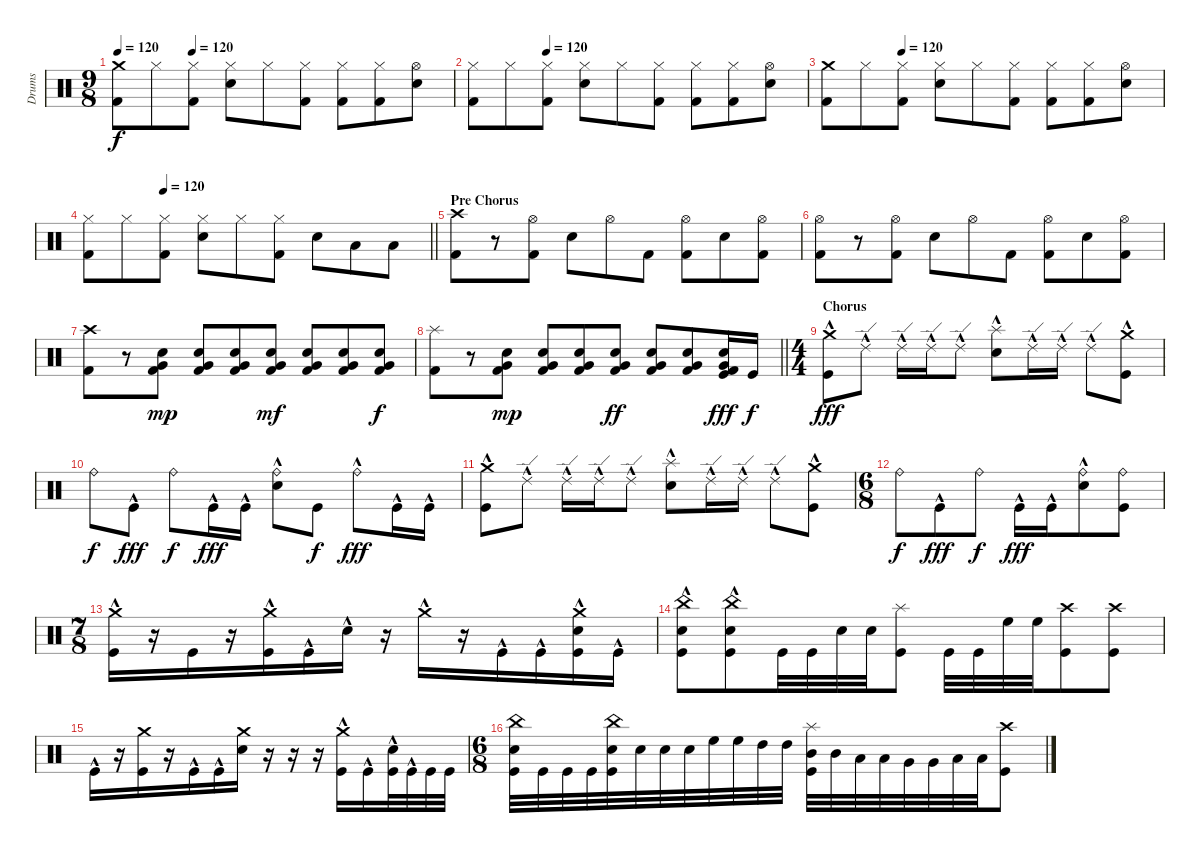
\track ("Drums" "Drums") {instrument percussion}
\staff {score}
\articulation defaults
\ts (9 8)
\tempo 120
\tempo (120 0.2222222222222222)
\clef neutral
\ks c
("Kick (hit) 2" "Crash medium (hit)").8{dy f} "Hi-Hat (closed)".8 ("Kick (hit) 2" "Hi-Hat (closed)").8 ("Electric Snare (hit)" "Hi-Hat (closed)").8 "Hi-Hat (closed)".8 ("Kick (hit) 2" "Hi-Hat (closed)").8 ("Kick (hit) 2" "Hi-Hat (closed)").8 ("Kick (hit) 2" "Hi-Hat (closed)").8 ("Electric Snare (hit)" "Hi-Hat (open)").8 |
\tempo (120 0.2222222222222222)
("Kick (hit) 2" "Hi-Hat (closed)").8 "Hi-Hat (closed)".8 ("Kick (hit) 2" "Hi-Hat (closed)").8 ("Electric Snare (hit)" "Hi-Hat (closed)").8 "Hi-Hat (closed)".8 ("Kick (hit) 2" "Hi-Hat (closed)").8 ("Kick (hit) 2" "Hi-Hat (closed)").8 ("Kick (hit) 2" "Hi-Hat (closed)").8 ("Electric Snare (hit)" "Hi-Hat (open)").8 |
\tempo (120 0.2222222222222222)
("Kick (hit) 2" "Crash medium (hit)").8 "Hi-Hat (closed)".8 ("Kick (hit) 2" "Hi-Hat (closed)").8 ("Electric Snare (hit)" "Hi-Hat (closed)").8 "Hi-Hat (closed)".8 ("Kick (hit) 2" "Hi-Hat (closed)").8 ("Kick (hit) 2" "Hi-Hat (closed)").8 ("Kick (hit) 2" "Hi-Hat (closed)").8 ("Electric Snare (hit)" "Hi-Hat (open)").8 |
\tempo (120 0.2222222222222222)
\barLineRight lightlight
("Kick (hit) 2" "Hi-Hat (closed)").8 "Hi-Hat (closed)".8 ("Kick (hit) 2" "Hi-Hat (closed)").8 ("Electric Snare (hit)" "Hi-Hat (closed)").8 "Hi-Hat (closed)".8 ("Kick (hit) 2" "Hi-Hat (closed)").8 "Electric Snare (hit)".8 "Low Tom (hit)".8 "Low Floor Tom (hit)".8 |
\section ("" "Pre Chorus")
("Kick (hit) 2" "Crash high (hit)").8 r.8 ("Kick (hit) 2" "Hi-Hat (open)").8 "Electric Snare (hit)".8 "Hi-Hat (open)".8 "Kick (hit) 2".8 ("Kick (hit) 2" "Hi-Hat (open)").8 "Electric Snare (hit)".8 ("Kick (hit) 2" "Hi-Hat (open)").8 |
("Kick (hit) 2" "Hi-Hat (open)").8 r.8 ("Kick (hit) 2" "Hi-Hat (open)").8 "Electric Snare (hit)".8 "Hi-Hat (open)".8 "Kick (hit) 2".8 ("Kick (hit) 2" "Hi-Hat (open)").8 "Electric Snare (hit)".8 ("Kick (hit) 2" "Hi-Hat (open)").8 |
("Kick (hit) 2" "Crash high (hit)").8 r.8 ("Electric Snare (hit)" "Very Low Tom (hit)" "Kick (hit) 2").8{dy mp} ("Electric Snare (hit)" "Very Low Tom (hit)" "Kick (hit) 2").8 ("Electric Snare (hit)" "Very Low Tom (hit)" "Kick (hit) 2").8 ("Kick (hit) 2" "Very Low Tom (hit)" "Electric Snare (hit)").8{dy mf} ("Electric Snare (hit)" "Very Low Tom (hit)" "Kick (hit) 2").8 ("Kick (hit) 2" "Very Low Tom (hit)" "Electric Snare (hit)").8 ("Electric Snare (hit)" "Very Low Tom (hit)" "Kick (hit) 2").8{dy f} |
\barLineRight lightlight
("Kick (hit) 2" "Splash (hit)").8 r.8 ("Electric Snare (hit)" "Very Low Tom (hit)" "Kick (hit) 2").8{dy mp} ("Electric Snare (hit)" "Very Low Tom (hit)" "Kick (hit) 2").8 ("Electric Snare (hit)" "Very Low Tom (hit)" "Kick (hit) 2").8 ("Kick (hit) 2" "Very Low Tom (hit)" "Electric Snare (hit)").8{dy ff} ("Electric Snare (hit)" "Very Low Tom (hit)" "Kick (hit) 2").8 ("Kick (hit) 2" "Very Low Tom (hit)" "Electric Snare (hit)").8 ("Electric Snare (hit)" "Very Low Tom (hit)" "Kick (hit) 2" "Kick (hit)").16{dy fff} "Kick (hit)".16{dy f} |
\ts (4 4)
\section ("" "Chorus")
("Crash medium (hit)"{hac} "Kick (hit)"{hac}).8{dy fff} "Ride (edge) 2"{hac}.8 "Ride (edge) 2"{hac}.16 "Ride (edge) 2"{hac}.16 "Ride (edge) 2"{hac}.8 ("Splash (hit)"{hac} "Electric Snare (hit)"{hac}).8 "Ride (edge) 2"{hac}.16 "Ride (edge) 2"{hac}.16 "Ride (edge) 2"{hac}.8 ("Crash medium (hit)"{hac} "Kick (hit)"{hac}).8 |
"Ride (bell)".8{dy f} "Kick (hit)"{hac}.8{dy fff} "Ride (bell)".8{dy f} "Kick (hit)"{hac}.16{dy fff} "Kick (hit)"{hac}.16 ("Ride (bell)"{hac} "Electric Snare (hit)"{hac}).8 "Kick (hit)".8{dy f} "Ride (bell)"{hac}.8{dy fff} "Kick (hit)"{hac}.16 "Kick (hit)"{hac}.16 |
("Crash medium (hit)"{hac} "Kick (hit)"{hac}).8 "Ride (edge) 2"{hac}.8 "Ride (edge) 2"{hac}.16 "Ride (edge) 2"{hac}.16 "Ride (edge) 2"{hac}.8 ("Splash (hit)"{hac} "Electric Snare (hit)"{hac}).8 "Ride (edge) 2"{hac}.16 "Ride (edge) 2"{hac}.16 "Ride (edge) 2"{hac}.8 ("Crash medium (hit)"{hac} "Kick (hit)"{hac}).8 |
\ts (6 8)
"Ride (bell)".8{dy f} "Kick (hit)"{hac}.8{dy fff} "Ride (bell)".8{dy f} "Kick (hit)"{hac}.16{dy fff} "Kick (hit)"{hac}.16 ("Ride (bell)"{hac} "Electric Snare (hit)"{hac}).8 ("Ride (bell)" "Kick (hit)").8 |
\ts (7 8)
("Crash medium (hit)"{hac} "Kick (hit)"{hac}).16 r.16 "Kick (hit)".16 r.16 ("Crash medium (hit)"{hac} "Kick (hit)"{hac}).16 "Kick (hit)"{hac}.16 "Electric Snare (hit)"{hac}.16 r.16 "Crash medium (hit)"{hac}.16 r.16 "Kick (hit)"{hac}.16 "Kick (hit)"{hac}.16 ("Crash medium (hit)"{hac} "Electric Snare (hit)"{hac} "Kick (hit)").16 "Kick (hit)"{hac}.16 |
("China (hit)"{hac} "Electric Snare (hit)"{hac} "Kick (hit)"{hac}).8 ("China (hit)"{hac} "Electric Snare (hit)"{hac} "Kick (hit)"{hac}).8 "Kick (hit)".32 "Kick (hit)".32 "Electric Snare (hit)".32 "Electric Snare (hit)".32 ("Splash (hit)" "Kick (hit)").8 "Kick (hit)".32 "Kick (hit)".32 "High Floor Tom (hit)".32 "High Floor Tom (hit)".32 ("Crash high (hit)" "Kick (hit)").8 ("Crash high (hit)" "Kick (hit)").8 |
"Kick (hit)"{hac}.16 r.16 ("Crash medium (hit)" "Kick (hit)").16 r.16 "Kick (hit)"{hac}.16 "Kick (hit)"{hac}.16 ("Crash medium (hit)" "Electric Snare (hit)").16 r.16 r.16 r.16 ("Crash medium (hit)" "Kick (hit)"{hac}).16 "Kick (hit)"{hac}.16 ("Electric Snare (hit)"{hac} "Kick (hit)").32 "Kick (hit)"{hac}.32 "Kick (hit)".32 "Kick (hit)".32 |
\ts (6 8)
("China (hit)" "Electric Snare (hit)" "Kick (hit)").32 "Kick (hit)".32 "Kick (hit)".32 "Kick (hit)".32 ("China (hit)" "Electric Snare (hit)" "Kick (hit)").32 "Electric Snare (hit)".32 "Electric Snare (hit)".32 "Electric Snare (hit)".32 "High Floor Tom (hit)".32 "High Floor Tom (hit)".32 "High Tom (hit)".32 "High Tom (hit)".32 ("Splash (hit)" "Mid Tom (hit)" "Kick (hit)").32 "Mid Tom (hit)".32 "Low Tom (hit)".32 "Low Tom (hit)".32 "Very Low Tom (hit)".32 "Very Low Tom (hit)".32 "Low Floor Tom (hit)".32 "Low Floor Tom (hit)".32 ("Crash high (hit)" "Kick (hit)").8
